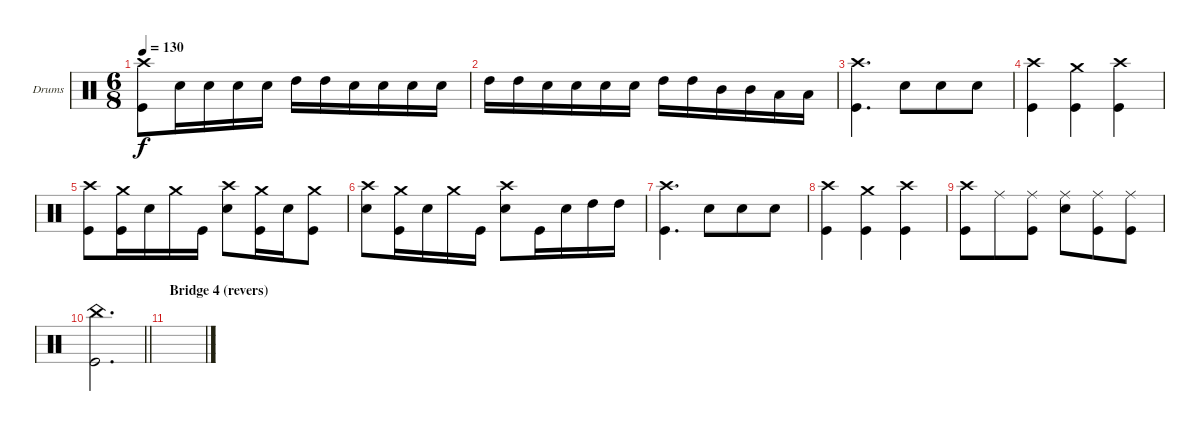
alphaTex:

\bracketExtendMode groupsimilarinstruments
\firstSystemTrackNameOrientation horizontal
\otherSystemsTrackNameOrientation horizontal
\track ("drums (Anton Zulganov)" "Drums") {instrument percussion}
\staff {score}
\articulation defaults
\ts (6 8)
\tempo 130
\clef neutral
\ks aminor
("Kick (hit)" "Crash high (hit)").8{dy f} "Snare (hit) 2".16 "Snare (hit) 2".16 "Snare (hit) 2".16 "Snare (hit) 2".16 "High Tom (hit)".16 "High Tom (hit)".16 "Snare (hit) 2".16 "Snare (hit) 2".16 "Snare (hit) 2".16 "Snare (hit) 2".16 |
"High Tom (hit)".16 "High Tom (hit)".16 "Snare (hit) 2".16 "Snare (hit) 2".16 "Snare (hit) 2".16 "Snare (hit) 2".16 "High Tom (hit)".16 "High Tom (hit)".16 "Mid Tom (hit)".16 "Mid Tom (hit)".16 "Low Tom (hit)".16 "Low Tom (hit)".16 |
("Crash high (hit)" "Kick (hit)").4{d} "Snare (hit) 2".8 "Snare (hit) 2".8 "Snare (hit) 2".8 |
("Crash high (hit)" "Kick (hit)").4 ("Kick (hit)" "Crash medium (hit)").4 ("Crash high (hit)" "Kick (hit)").4 |
("Kick (hit)" "Crash high (hit)").8 ("Crash medium (hit)" "Kick (hit)").16 "Snare (hit) 2".16 "Crash medium (hit)".16 "Kick (hit)".16 ("Crash high (hit)" "Snare (hit) 2").8 ("Kick (hit)" "Crash medium (hit)").16 "Snare (hit) 2".16 ("Kick (hit)" "Crash medium (hit)").8 |
("Crash high (hit)" "Snare (hit) 2").8 ("Crash medium (hit)" "Kick (hit)").16 "Snare (hit) 2".16 "Crash medium (hit)".16 "Kick (hit)".16 ("Crash high (hit)" "Snare (hit) 2").8 "Kick (hit)".16 "Snare (hit) 2".16 "High Tom (hit)".16 "High Tom (hit)".16 |
("Crash high (hit)" "Kick (hit)").4{d} "Snare (hit) 2".8 "Snare (hit) 2".8 "Snare (hit) 2".8 |
("Crash high (hit)" "Kick (hit)").4 ("Kick (hit)" "Crash medium (hit)").4 ("Crash high (hit)" "Kick (hit)").4 |
("Kick (hit)" "Crash high (hit)").8 "Ride (middle)".8 ("Kick (hit)" "Ride (middle)").8 ("Snare (hit) 2" "Ride (middle)").8 ("Kick (hit)" "Ride (middle)").8 ("Kick (hit)" "Ride (middle)").8 |
\barLineRight lightlight
("Kick (hit)" "China (hit)").2{d} |
\section ("" "Bridge 4 (revers)")
